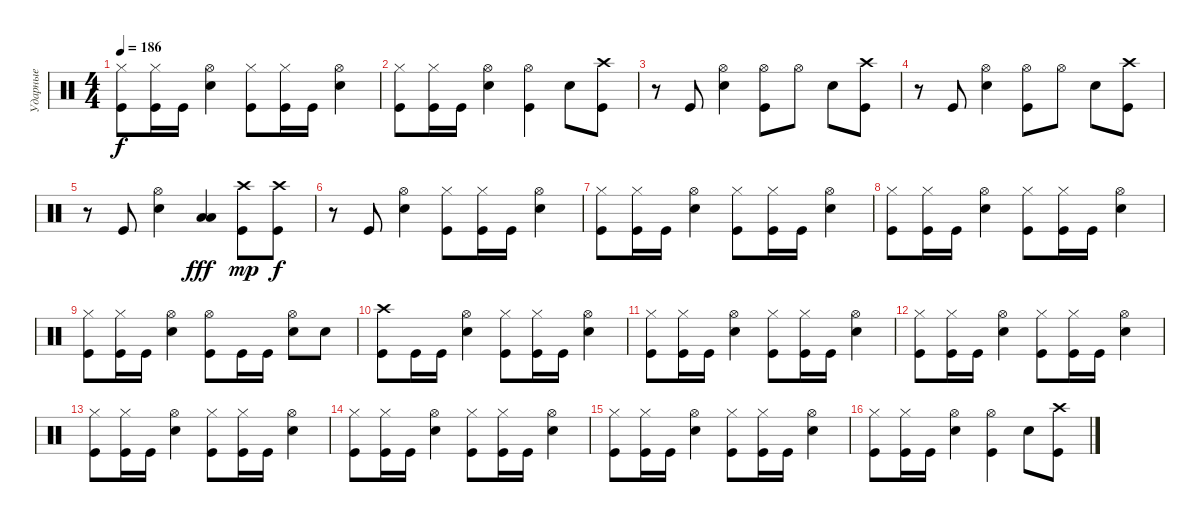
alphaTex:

\track ("Ударные" "Ударные") {instrument percussion}
\staff {score}
\articulation defaults
\ts (4 4)
\tempo 186
\clef neutral
\ks aminor
("Kick (hit)" "Hi-Hat (closed)").8{dy f} ("Kick (hit)" "Hi-Hat (closed)").16 "Kick (hit)".16 ("Snare (hit) 2" "Hi-Hat (open)").4 ("Kick (hit)" "Hi-Hat (closed)").8 ("Kick (hit)" "Hi-Hat (closed)").16 "Kick (hit)".16 ("Snare (hit) 2" "Hi-Hat (open)").4 |
("Kick (hit)" "Hi-Hat (closed)").8 ("Kick (hit)" "Hi-Hat (closed)").16 "Kick (hit)".16 ("Snare (hit) 2" "Hi-Hat (open)").4 ("Kick (hit)" "Hi-Hat (open)").4 "Snare (hit) 2".8 ("Kick (hit)" "Crash high (hit)").8 |
r.8 "Kick (hit)".8 ("Snare (hit) 2" "Hi-Hat (open)").4 ("Kick (hit)" "Hi-Hat (open)").8 "Hi-Hat (open)".8 "Snare (hit) 2".8 ("Kick (hit)" "Crash high (hit)").8 |
r.8 "Kick (hit)".8 ("Snare (hit) 2" "Hi-Hat (open)").4 ("Kick (hit)" "Hi-Hat (open)").8 "Hi-Hat (open)".8 "Snare (hit) 2".8 ("Kick (hit)" "Crash high (hit)").8 |
r.8 "Kick (hit)".8 ("Snare (hit) 2" "Hi-Hat (open)").4 ("Low Tom (hit)" "Low Tom (hit)").4{bd 480 dy fff} ("Kick (hit)" "Crash high (hit)").8{dy mp} ("Kick (hit)" "Crash high (hit)").8{dy f} |
r.8 "Kick (hit)".8 ("Snare (hit) 2" "Hi-Hat (open)").4 ("Kick (hit)" "Hi-Hat (closed)").8 ("Kick (hit)" "Hi-Hat (closed)").16 "Kick (hit)".16 ("Snare (hit) 2" "Hi-Hat (open)").4 |
("Kick (hit)" "Hi-Hat (closed)").8 ("Kick (hit)" "Hi-Hat (closed)").16 "Kick (hit)".16 ("Snare (hit) 2" "Hi-Hat (open)").4 ("Kick (hit)" "Hi-Hat (closed)").8 ("Kick (hit)" "Hi-Hat (closed)").16 "Kick (hit)".16 ("Snare (hit) 2" "Hi-Hat (open)").4 |
("Kick (hit)" "Hi-Hat (closed)").8 ("Kick (hit)" "Hi-Hat (closed)").16 "Kick (hit)".16 ("Snare (hit) 2" "Hi-Hat (open)").4 ("Kick (hit)" "Hi-Hat (closed)").8 ("Kick (hit)" "Hi-Hat (closed)").16 "Kick (hit)".16 ("Snare (hit) 2" "Hi-Hat (open)").4 |
("Kick (hit)" "Hi-Hat (closed)").8 ("Kick (hit)" "Hi-Hat (closed)").16 "Kick (hit)".16 ("Snare (hit) 2" "Hi-Hat (open)").4 ("Kick (hit)" "Hi-Hat (open)").8 "Kick (hit)".16 "Kick (hit)".16 ("Snare (hit) 2" "Hi-Hat (open)").8 "Snare (hit) 2".8 |
("Kick (hit)" "Crash high (hit)").8 "Kick (hit)".16 "Kick (hit)".16 ("Snare (hit) 2" "Hi-Hat (open)").4 ("Kick (hit)" "Hi-Hat (closed)").8 ("Kick (hit)" "Hi-Hat (closed)").16 "Kick (hit)".16 ("Snare (hit) 2" "Hi-Hat (open)").4 |
("Kick (hit)" "Hi-Hat (closed)").8 ("Kick (hit)" "Hi-Hat (closed)").16 "Kick (hit)".16 ("Snare (hit) 2" "Hi-Hat (open)").4 ("Kick (hit)" "Hi-Hat (closed)").8 ("Kick (hit)" "Hi-Hat (closed)").16 "Kick (hit)".16 ("Snare (hit) 2" "Hi-Hat (open)").4 |
("Kick (hit)" "Hi-Hat (closed)").8 ("Kick (hit)" "Hi-Hat (closed)").16 "Kick (hit)".16 ("Snare (hit) 2" "Hi-Hat (open)").4 ("Kick (hit)" "Hi-Hat (closed)").8 ("Kick (hit)" "Hi-Hat (closed)").16 "Kick (hit)".16 ("Snare (hit) 2" "Hi-Hat (open)").4 |
("Kick (hit)" "Hi-Hat (closed)").8 ("Kick (hit)" "Hi-Hat (closed)").16 "Kick (hit)".16 ("Snare (hit) 2" "Hi-Hat (open)").4 ("Kick (hit)" "Hi-Hat (closed)").8 ("Kick (hit)" "Hi-Hat (closed)").16 "Kick (hit)".16 ("Snare (hit) 2" "Hi-Hat (open)").4 |
("Kick (hit)" "Hi-Hat (closed)").8 ("Kick (hit)" "Hi-Hat (closed)").16 "Kick (hit)".16 ("Snare (hit) 2" "Hi-Hat (open)").4 ("Kick (hit)" "Hi-Hat (closed)").8 ("Kick (hit)" "Hi-Hat (closed)").16 "Kick (hit)".16 ("Snare (hit) 2" "Hi-Hat (open)").4 |
("Kick (hit)" "Hi-Hat (closed)").8 ("Kick (hit)" "Hi-Hat (closed)").16 "Kick (hit)".16 ("Snare (hit) 2" "Hi-Hat (open)").4 ("Kick (hit)" "Hi-Hat (closed)").8 ("Kick (hit)" "Hi-Hat (closed)").16 "Kick (hit)".16 ("Snare (hit) 2" "Hi-Hat (open)").4 |
("Kick (hit)" "Hi-Hat (closed)").8 ("Kick (hit)" "Hi-Hat (closed)").16 "Kick (hit)".16 ("Snare (hit) 2" "Hi-Hat (open)").4 ("Kick (hit)" "Hi-Hat (open)").4 "Snare (hit) 2".8 ("Kick (hit)" "Crash high (hit)").8
